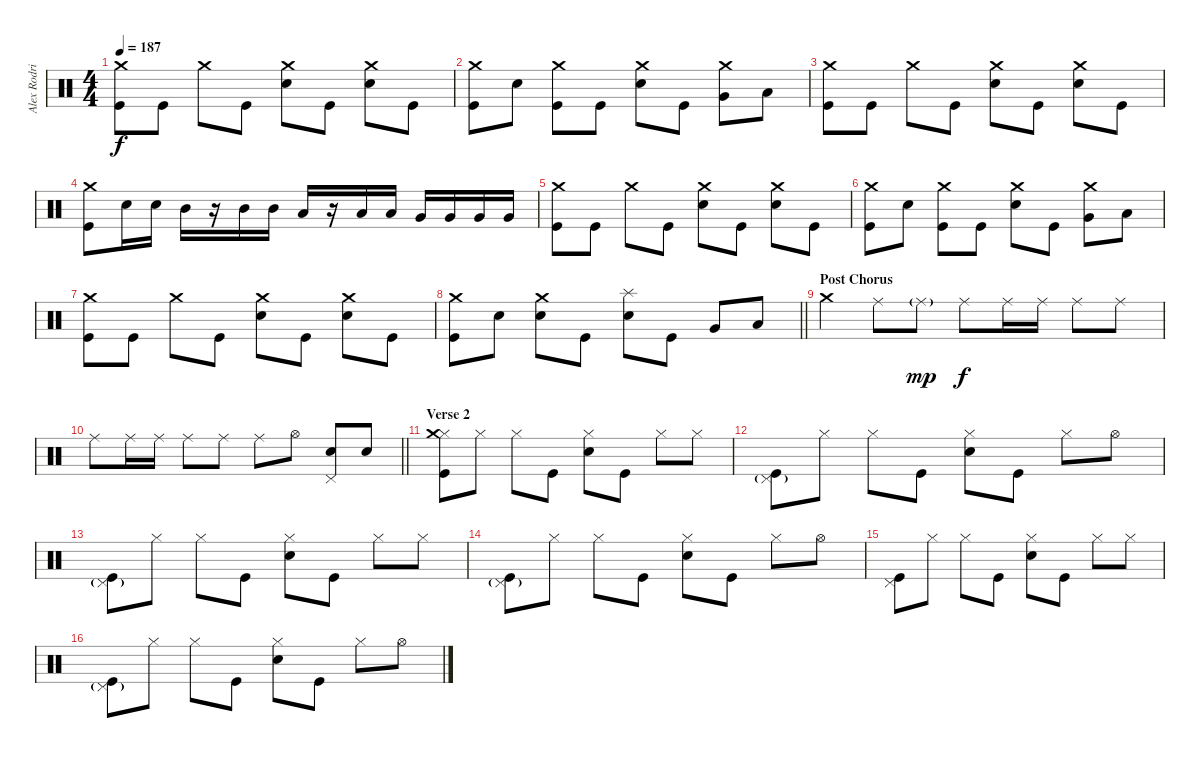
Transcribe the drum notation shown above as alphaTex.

\track ("Alex Rodriguez" "Alex Rodri") {instrument percussion}
\staff {score}
\articulation defaults
\ts (4 4)
\tempo 187
\clef neutral
\ks c
("Crash medium (hit)" "Kick (hit)").8{dy f} "Kick (hit)".8 "Crash medium (hit)".8 "Kick (hit)".8 ("Crash medium (hit)" "Electric Snare (hit)").8 "Kick (hit)".8 ("Crash medium (hit)" "Electric Snare (hit)").8 "Kick (hit)".8 |
("Crash medium (hit)" "Kick (hit)").8 "Electric Snare (hit)".8 ("Crash medium (hit)" "Kick (hit)").8 "Kick (hit)".8 ("Crash medium (hit)" "Electric Snare (hit)").8 "Kick (hit)".8 ("Crash medium (hit)" "Very Low Tom (hit)").8 "Low Floor Tom (hit)".8 |
("Crash medium (hit)" "Kick (hit)").8 "Kick (hit)".8 "Crash medium (hit)".8 "Kick (hit)".8 ("Crash medium (hit)" "Electric Snare (hit)").8 "Kick (hit)".8 ("Crash medium (hit)" "Electric Snare (hit)").8 "Kick (hit)".8 |
("Crash medium (hit)" "Kick (hit)").8 "Electric Snare (hit)".16 "Electric Snare (hit)".16 "Mid Tom (hit)".16 r.16 "Mid Tom (hit)".16 "Mid Tom (hit)".16 "Low Tom (hit)".16 r.16 "Low Tom (hit)".16 "Low Tom (hit)".16 "Very Low Tom (hit)".16 "Very Low Tom (hit)".16 "Very Low Tom (hit)".16 "Very Low Tom (hit)".16 |
("Crash medium (hit)" "Kick (hit)").8 "Kick (hit)".8 "Crash medium (hit)".8 "Kick (hit)".8 ("Crash medium (hit)" "Electric Snare (hit)").8 "Kick (hit)".8 ("Crash medium (hit)" "Electric Snare (hit)").8 "Kick (hit)".8 |
("Crash medium (hit)" "Kick (hit)").8 "Electric Snare (hit)".8 ("Crash medium (hit)" "Kick (hit)").8 "Kick (hit)".8 ("Crash medium (hit)" "Electric Snare (hit)").8 "Kick (hit)".8 ("Crash medium (hit)" "Very Low Tom (hit)").8 "Low Floor Tom (hit)".8 |
("Crash medium (hit)" "Kick (hit)").8 "Kick (hit)".8 "Crash medium (hit)".8 "Kick (hit)".8 ("Crash medium (hit)" "Electric Snare (hit)").8 "Kick (hit)".8 ("Crash medium (hit)" "Electric Snare (hit)").8 "Kick (hit)".8 |
\barLineRight lightlight
("Crash medium (hit)" "Kick (hit)").8 "Electric Snare (hit)".8 ("Crash medium (hit)" "Electric Snare (hit)").8 "Kick (hit)".8 ("Splash (hit)" "Electric Snare (hit)").8 "Kick (hit)".8 "Very Low Tom (hit)".8 "Low Floor Tom (hit)".8 |
\section ("" "Post Chorus")
"Crash medium (hit)".4 "Ride (middle)".8 "Ride (middle)"{g}.8{dy mp} "Ride (middle)".8{dy f} "Ride (middle)".16 "Ride (middle)".16 "Ride (middle)".8 "Ride (middle)".8 |
\barLineRight lightlight "Ride (middle)".8 "Ride (middle)".16 "Ride (middle)".16 "Ride (middle)".8 "Ride (middle)".8 "Ride (middle)".8 "Hi-Hat (open)".8
("Pedal Hi-Hat (hit)" "Electric Snare (hit)").8 "Electric Snare (hit)".8 |
\section ("" "Verse 2")
("Hi-Hat (closed)" "Crash medium (hit)" "Kick (hit)").8 "Hi-Hat (closed)".8 "Hi-Hat (closed)".8 "Kick (hit)".8 ("Hi-Hat (closed)" "Electric Snare (hit)").8 "Kick (hit)".8 "Hi-Hat (closed)".8 "Hi-Hat (closed)".8 |
("Pedal Hi-Hat (hit)"{g} "Kick (hit)").8 "Hi-Hat (closed)".8 "Hi-Hat (closed)".8 "Kick (hit)".8 ("Hi-Hat (closed)" "Electric Snare (hit)").8 "Kick (hit)".8 "Hi-Hat (closed)".8 "Hi-Hat (open)".8 |
("Pedal Hi-Hat (hit)"{g} "Kick (hit)").8 "Hi-Hat (closed)".8 "Hi-Hat (closed)".8 "Kick (hit)".8 ("Hi-Hat (closed)" "Electric Snare (hit)").8 "Kick (hit)".8 "Hi-Hat (closed)".8 "Hi-Hat (closed)".8 |
("Pedal Hi-Hat (hit)"{g} "Kick (hit)").8 "Hi-Hat (closed)".8 "Hi-Hat (closed)".8 "Kick (hit)".8 ("Hi-Hat (closed)" "Electric Snare (hit)").8 "Kick (hit)".8 "Hi-Hat (closed)".8 "Hi-Hat (open)".8 |
("Pedal Hi-Hat (hit)" "Kick (hit)").8 "Hi-Hat (closed)".8 "Hi-Hat (closed)".8 "Kick (hit)".8 ("Hi-Hat (closed)" "Electric Snare (hit)").8 "Kick (hit)".8 "Hi-Hat (closed)".8 "Hi-Hat (closed)".8 |
("Pedal Hi-Hat (hit)"{g} "Kick (hit)").8 "Hi-Hat (closed)".8 "Hi-Hat (closed)".8 "Kick (hit)".8 ("Hi-Hat (closed)" "Electric Snare (hit)").8 "Kick (hit)".8 "Hi-Hat (closed)".8 "Hi-Hat (open)".8
